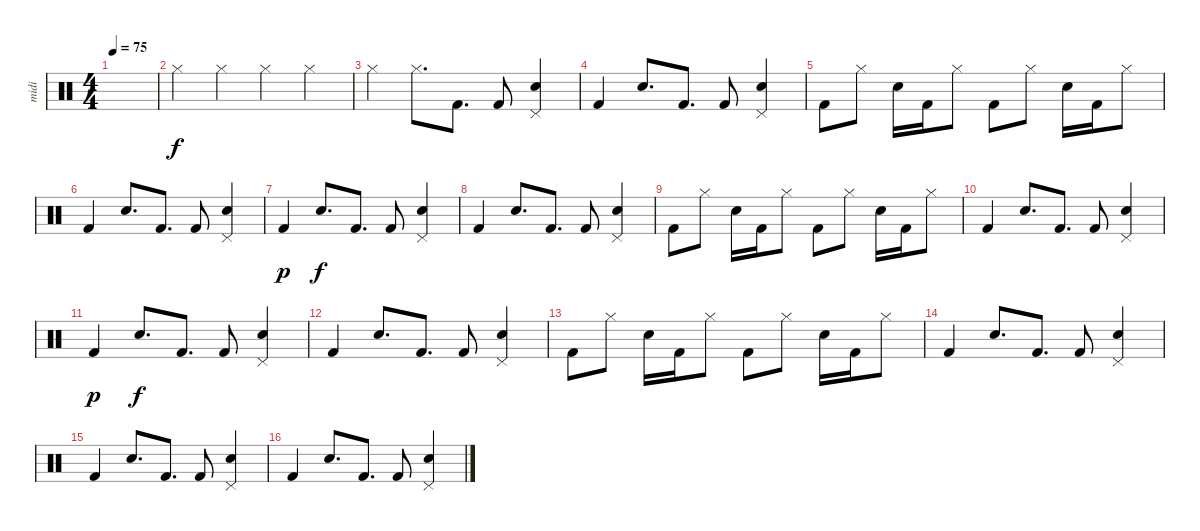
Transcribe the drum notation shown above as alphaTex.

\track ("midi" "midi") {instrument percussion}
\staff {score}
\articulation defaults
\ts (4 4)
\tempo 75
\clef neutral
\ks c
|
"Hi-Hat (closed)".4 "Hi-Hat (closed)".4 "Hi-Hat (closed)".4 "Hi-Hat (closed)".4 |
"Hi-Hat (closed)".4 "Hi-Hat (closed)".8{d} "Kick (hit) 2".8{d dy f} "Kick (hit) 2".8 ("Electric Snare (hit)" "Pedal Hi-Hat (hit)").4 |
"Kick (hit) 2".4 "Electric Snare (hit)".8{d} "Kick (hit) 2".8{d} "Kick (hit) 2".8 ("Electric Snare (hit)" "Pedal Hi-Hat (hit)").4 |
"Kick (hit) 2".8 "Hi-Hat (closed)".8 "Electric Snare (hit)".16 "Kick (hit) 2".16 "Hi-Hat (closed)".8 "Kick (hit) 2".8 "Hi-Hat (closed)".8 "Electric Snare (hit)".16 "Kick (hit) 2".16 "Hi-Hat (closed)".8 |
"Kick (hit) 2".4 "Electric Snare (hit)".8{d} "Kick (hit) 2".8{d} "Kick (hit) 2".8 ("Electric Snare (hit)" "Pedal Hi-Hat (hit)").4 |
"Kick (hit) 2".4{dy p} "Electric Snare (hit)".8{d dy f} "Kick (hit) 2".8{d} "Kick (hit) 2".8 ("Electric Snare (hit)" "Pedal Hi-Hat (hit)").4 |
"Kick (hit) 2".4 "Electric Snare (hit)".8{d} "Kick (hit) 2".8{d} "Kick (hit) 2".8 ("Electric Snare (hit)" "Pedal Hi-Hat (hit)").4 |
"Kick (hit) 2".8 "Hi-Hat (closed)".8 "Electric Snare (hit)".16 "Kick (hit) 2".16 "Hi-Hat (closed)".8 "Kick (hit) 2".8 "Hi-Hat (closed)".8 "Electric Snare (hit)".16 "Kick (hit) 2".16 "Hi-Hat (closed)".8 |
"Kick (hit) 2".4 "Electric Snare (hit)".8{d} "Kick (hit) 2".8{d} "Kick (hit) 2".8 ("Electric Snare (hit)" "Pedal Hi-Hat (hit)").4 |
"Kick (hit) 2".4{dy p} "Electric Snare (hit)".8{d dy f} "Kick (hit) 2".8{d} "Kick (hit) 2".8 ("Electric Snare (hit)" "Pedal Hi-Hat (hit)").4 |
"Kick (hit) 2".4 "Electric Snare (hit)".8{d} "Kick (hit) 2".8{d} "Kick (hit) 2".8 ("Electric Snare (hit)" "Pedal Hi-Hat (hit)").4 |
"Kick (hit) 2".8 "Hi-Hat (closed)".8 "Electric Snare (hit)".16 "Kick (hit) 2".16 "Hi-Hat (closed)".8 "Kick (hit) 2".8 "Hi-Hat (closed)".8 "Electric Snare (hit)".16 "Kick (hit) 2".16 "Hi-Hat (closed)".8 |
"Kick (hit) 2".4 "Electric Snare (hit)".8{d} "Kick (hit) 2".8{d} "Kick (hit) 2".8 ("Electric Snare (hit)" "Pedal Hi-Hat (hit)").4 |
"Kick (hit) 2".4 "Electric Snare (hit)".8{d} "Kick (hit) 2".8{d} "Kick (hit) 2".8 ("Electric Snare (hit)" "Pedal Hi-Hat (hit)").4 |
"Kick (hit) 2".4 "Electric Snare (hit)".8{d} "Kick (hit) 2".8{d} "Kick (hit) 2".8 ("Electric Snare (hit)" "Pedal Hi-Hat (hit)").4
